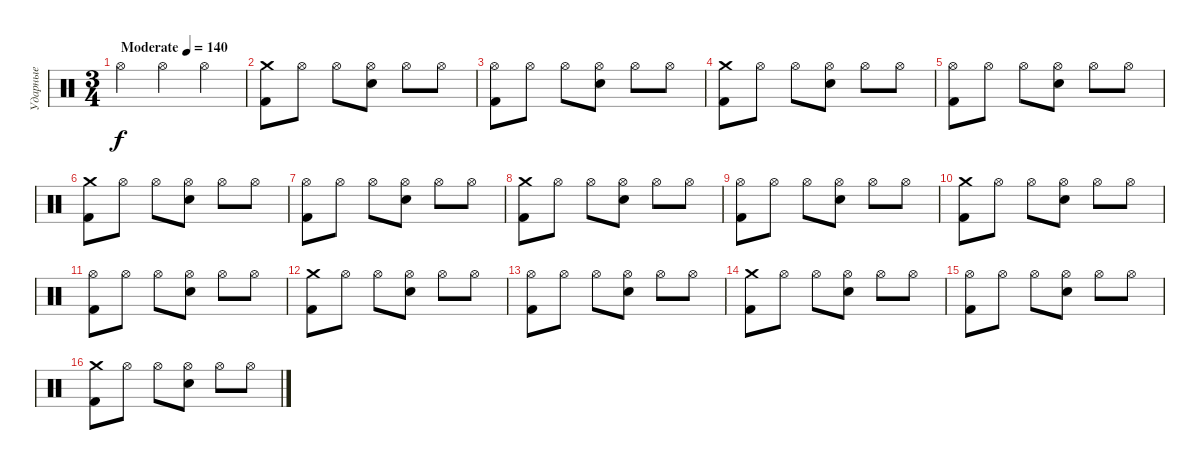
\track ("Ударные" "Ударные") {instrument percussion}
\staff {score}
\articulation defaults
\ts (3 4)
\tempo (140 "Moderate")
\clef neutral
\ks c "Hi-Hat (open)".4{dy f} "Hi-Hat (open)".4 "Hi-Hat (open)".4
|
("Crash medium (hit)" "Kick (hit) 2").8 "Hi-Hat (open)".8 "Hi-Hat (open)".8 ("Hi-Hat (open)" "Electric Snare (hit)").8 "Hi-Hat (open)".8 "Hi-Hat (open)".8 |
("Hi-Hat (open)" "Kick (hit) 2").8 "Hi-Hat (open)".8 "Hi-Hat (open)".8 ("Hi-Hat (open)" "Electric Snare (hit)").8 "Hi-Hat (open)".8 "Hi-Hat (open)".8 |
("Crash medium (hit)" "Kick (hit) 2").8 "Hi-Hat (open)".8 "Hi-Hat (open)".8 ("Hi-Hat (open)" "Electric Snare (hit)").8 "Hi-Hat (open)".8 "Hi-Hat (open)".8 |
("Hi-Hat (open)" "Kick (hit) 2").8 "Hi-Hat (open)".8 "Hi-Hat (open)".8 ("Hi-Hat (open)" "Electric Snare (hit)").8 "Hi-Hat (open)".8 "Hi-Hat (open)".8 |
("Crash medium (hit)" "Kick (hit) 2").8 "Hi-Hat (open)".8 "Hi-Hat (open)".8 ("Hi-Hat (open)" "Electric Snare (hit)").8 "Hi-Hat (open)".8 "Hi-Hat (open)".8 |
("Hi-Hat (open)" "Kick (hit) 2").8 "Hi-Hat (open)".8 "Hi-Hat (open)".8 ("Hi-Hat (open)" "Electric Snare (hit)").8 "Hi-Hat (open)".8 "Hi-Hat (open)".8 |
("Crash medium (hit)" "Kick (hit) 2").8 "Hi-Hat (open)".8 "Hi-Hat (open)".8 ("Hi-Hat (open)" "Electric Snare (hit)").8 "Hi-Hat (open)".8 "Hi-Hat (open)".8 |
("Hi-Hat (open)" "Kick (hit) 2").8 "Hi-Hat (open)".8 "Hi-Hat (open)".8 ("Hi-Hat (open)" "Electric Snare (hit)").8 "Hi-Hat (open)".8 "Hi-Hat (open)".8 |
("Crash medium (hit)" "Kick (hit) 2").8 "Hi-Hat (open)".8 "Hi-Hat (open)".8 ("Hi-Hat (open)" "Electric Snare (hit)").8 "Hi-Hat (open)".8 "Hi-Hat (open)".8 |
("Hi-Hat (open)" "Kick (hit) 2").8 "Hi-Hat (open)".8 "Hi-Hat (open)".8 ("Hi-Hat (open)" "Electric Snare (hit)").8 "Hi-Hat (open)".8 "Hi-Hat (open)".8 |
("Crash medium (hit)" "Kick (hit) 2").8 "Hi-Hat (open)".8 "Hi-Hat (open)".8 ("Hi-Hat (open)" "Electric Snare (hit)").8 "Hi-Hat (open)".8 "Hi-Hat (open)".8 |
("Hi-Hat (open)" "Kick (hit) 2").8 "Hi-Hat (open)".8 "Hi-Hat (open)".8 ("Hi-Hat (open)" "Electric Snare (hit)").8 "Hi-Hat (open)".8 "Hi-Hat (open)".8 |
("Crash medium (hit)" "Kick (hit) 2").8 "Hi-Hat (open)".8 "Hi-Hat (open)".8 ("Hi-Hat (open)" "Electric Snare (hit)").8 "Hi-Hat (open)".8 "Hi-Hat (open)".8 |
("Hi-Hat (open)" "Kick (hit) 2").8 "Hi-Hat (open)".8 "Hi-Hat (open)".8 ("Hi-Hat (open)" "Electric Snare (hit)").8 "Hi-Hat (open)".8 "Hi-Hat (open)".8 |
("Crash medium (hit)" "Kick (hit) 2").8 "Hi-Hat (open)".8 "Hi-Hat (open)".8 ("Hi-Hat (open)" "Electric Snare (hit)").8 "Hi-Hat (open)".8 "Hi-Hat (open)".8
